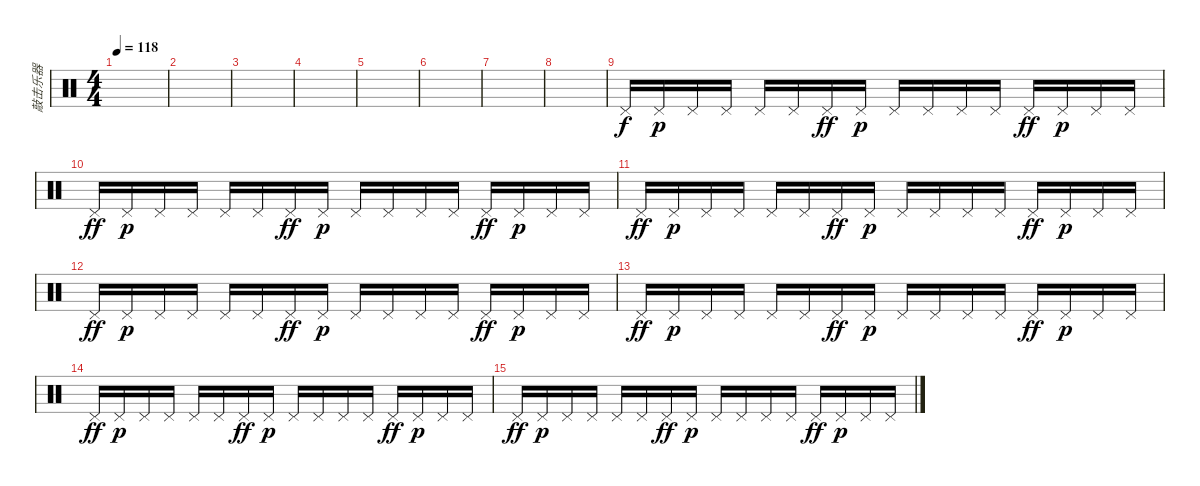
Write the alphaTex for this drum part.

\track ("敲击乐器" "敲击乐器") {instrument percussion}
\staff {score}
\articulation defaults
\ts (4 4)
\tempo 118
\clef neutral
\ks c
|
|
|
|
|
|
|
|
"Pedal Hi-Hat (hit)".16 "Pedal Hi-Hat (hit)".16{dy p} "Pedal Hi-Hat (hit)".16 "Pedal Hi-Hat (hit)".16 "Pedal Hi-Hat (hit)".16 "Pedal Hi-Hat (hit)".16 "Pedal Hi-Hat (hit)".16{dy ff} "Pedal Hi-Hat (hit)".16{dy p} "Pedal Hi-Hat (hit)".16 "Pedal Hi-Hat (hit)".16 "Pedal Hi-Hat (hit)".16 "Pedal Hi-Hat (hit)".16 "Pedal Hi-Hat (hit)".16{dy ff} "Pedal Hi-Hat (hit)".16{dy p} "Pedal Hi-Hat (hit)".16 "Pedal Hi-Hat (hit)".16 |
"Pedal Hi-Hat (hit)".16{dy ff} "Pedal Hi-Hat (hit)".16{dy p} "Pedal Hi-Hat (hit)".16 "Pedal Hi-Hat (hit)".16 "Pedal Hi-Hat (hit)".16 "Pedal Hi-Hat (hit)".16 "Pedal Hi-Hat (hit)".16{dy ff} "Pedal Hi-Hat (hit)".16{dy p} "Pedal Hi-Hat (hit)".16 "Pedal Hi-Hat (hit)".16 "Pedal Hi-Hat (hit)".16 "Pedal Hi-Hat (hit)".16 "Pedal Hi-Hat (hit)".16{dy ff} "Pedal Hi-Hat (hit)".16{dy p} "Pedal Hi-Hat (hit)".16 "Pedal Hi-Hat (hit)".16 |
"Pedal Hi-Hat (hit)".16{dy ff} "Pedal Hi-Hat (hit)".16{dy p} "Pedal Hi-Hat (hit)".16 "Pedal Hi-Hat (hit)".16 "Pedal Hi-Hat (hit)".16 "Pedal Hi-Hat (hit)".16 "Pedal Hi-Hat (hit)".16{dy ff} "Pedal Hi-Hat (hit)".16{dy p} "Pedal Hi-Hat (hit)".16 "Pedal Hi-Hat (hit)".16 "Pedal Hi-Hat (hit)".16 "Pedal Hi-Hat (hit)".16 "Pedal Hi-Hat (hit)".16{dy ff} "Pedal Hi-Hat (hit)".16{dy p} "Pedal Hi-Hat (hit)".16 "Pedal Hi-Hat (hit)".16 |
"Pedal Hi-Hat (hit)".16{dy ff} "Pedal Hi-Hat (hit)".16{dy p} "Pedal Hi-Hat (hit)".16 "Pedal Hi-Hat (hit)".16 "Pedal Hi-Hat (hit)".16 "Pedal Hi-Hat (hit)".16 "Pedal Hi-Hat (hit)".16{dy ff} "Pedal Hi-Hat (hit)".16{dy p} "Pedal Hi-Hat (hit)".16 "Pedal Hi-Hat (hit)".16 "Pedal Hi-Hat (hit)".16 "Pedal Hi-Hat (hit)".16 "Pedal Hi-Hat (hit)".16{dy ff} "Pedal Hi-Hat (hit)".16{dy p} "Pedal Hi-Hat (hit)".16 "Pedal Hi-Hat (hit)".16 |
"Pedal Hi-Hat (hit)".16{dy ff} "Pedal Hi-Hat (hit)".16{dy p} "Pedal Hi-Hat (hit)".16 "Pedal Hi-Hat (hit)".16 "Pedal Hi-Hat (hit)".16 "Pedal Hi-Hat (hit)".16 "Pedal Hi-Hat (hit)".16{dy ff} "Pedal Hi-Hat (hit)".16{dy p} "Pedal Hi-Hat (hit)".16 "Pedal Hi-Hat (hit)".16 "Pedal Hi-Hat (hit)".16 "Pedal Hi-Hat (hit)".16 "Pedal Hi-Hat (hit)".16{dy ff} "Pedal Hi-Hat (hit)".16{dy p} "Pedal Hi-Hat (hit)".16 "Pedal Hi-Hat (hit)".16 |
"Pedal Hi-Hat (hit)".16{dy ff} "Pedal Hi-Hat (hit)".16{dy p} "Pedal Hi-Hat (hit)".16 "Pedal Hi-Hat (hit)".16 "Pedal Hi-Hat (hit)".16 "Pedal Hi-Hat (hit)".16 "Pedal Hi-Hat (hit)".16{dy ff} "Pedal Hi-Hat (hit)".16{dy p} "Pedal Hi-Hat (hit)".16 "Pedal Hi-Hat (hit)".16 "Pedal Hi-Hat (hit)".16 "Pedal Hi-Hat (hit)".16 "Pedal Hi-Hat (hit)".16{dy ff} "Pedal Hi-Hat (hit)".16{dy p} "Pedal Hi-Hat (hit)".16 "Pedal Hi-Hat (hit)".16 |
"Pedal Hi-Hat (hit)".16{dy ff} "Pedal Hi-Hat (hit)".16{dy p} "Pedal Hi-Hat (hit)".16 "Pedal Hi-Hat (hit)".16 "Pedal Hi-Hat (hit)".16 "Pedal Hi-Hat (hit)".16 "Pedal Hi-Hat (hit)".16{dy ff} "Pedal Hi-Hat (hit)".16{dy p} "Pedal Hi-Hat (hit)".16 "Pedal Hi-Hat (hit)".16 "Pedal Hi-Hat (hit)".16 "Pedal Hi-Hat (hit)".16 "Pedal Hi-Hat (hit)".16{dy ff} "Pedal Hi-Hat (hit)".16{dy p} "Pedal Hi-Hat (hit)".16 "Pedal Hi-Hat (hit)".16
